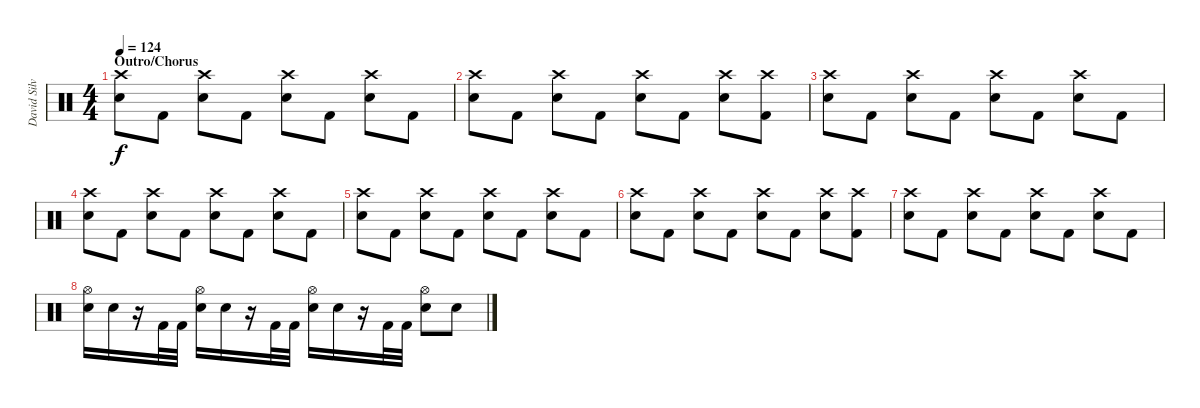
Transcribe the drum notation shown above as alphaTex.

\track ("David Silvera" "David Silv") {instrument percussion}
\staff {score}
\articulation defaults
\ts (4 4)
\section ("" "Outro/Chorus")
\tempo 124
\clef neutral
\ks c
("Crash high (hit)" "Electric Snare (hit)").8{dy f} "Kick (hit) 2".8 ("Crash high (hit)" "Electric Snare (hit)").8 "Kick (hit) 2".8 ("Crash high (hit)" "Electric Snare (hit)").8 "Kick (hit) 2".8 ("Crash high (hit)" "Electric Snare (hit)").8 "Kick (hit) 2".8 |
("Crash high (hit)" "Electric Snare (hit)").8 "Kick (hit) 2".8 ("Crash high (hit)" "Electric Snare (hit)").8 "Kick (hit) 2".8 ("Crash high (hit)" "Electric Snare (hit)").8 "Kick (hit) 2".8 ("Crash high (hit)" "Electric Snare (hit)").8 ("Crash high (hit)" "Kick (hit) 2").8 |
("Crash high (hit)" "Electric Snare (hit)").8 "Kick (hit) 2".8 ("Crash high (hit)" "Electric Snare (hit)").8 "Kick (hit) 2".8 ("Crash high (hit)" "Electric Snare (hit)").8 "Kick (hit) 2".8 ("Crash high (hit)" "Electric Snare (hit)").8 "Kick (hit) 2".8 |
("Crash high (hit)" "Electric Snare (hit)").8 "Kick (hit) 2".8 ("Crash high (hit)" "Electric Snare (hit)").8 "Kick (hit) 2".8 ("Crash high (hit)" "Electric Snare (hit)").8 "Kick (hit) 2".8 ("Crash high (hit)" "Electric Snare (hit)").8 "Kick (hit) 2".8 |
("Crash high (hit)" "Electric Snare (hit)").8 "Kick (hit) 2".8 ("Crash high (hit)" "Electric Snare (hit)").8 "Kick (hit) 2".8 ("Crash high (hit)" "Electric Snare (hit)").8 "Kick (hit) 2".8 ("Crash high (hit)" "Electric Snare (hit)").8 "Kick (hit) 2".8 |
("Crash high (hit)" "Electric Snare (hit)").8 "Kick (hit) 2".8 ("Crash high (hit)" "Electric Snare (hit)").8 "Kick (hit) 2".8 ("Crash high (hit)" "Electric Snare (hit)").8 "Kick (hit) 2".8 ("Crash high (hit)" "Electric Snare (hit)").8 ("Crash high (hit)" "Kick (hit) 2").8 |
("Crash high (hit)" "Electric Snare (hit)").8 "Kick (hit) 2".8 ("Crash high (hit)" "Electric Snare (hit)").8 "Kick (hit) 2".8 ("Crash high (hit)" "Electric Snare (hit)").8 "Kick (hit) 2".8 ("Crash high (hit)" "Electric Snare (hit)").8 "Kick (hit) 2".8 |
("Hi-Hat (open)" "Electric Snare (hit)").16 "Electric Snare (hit)".16 r.16 "Kick (hit) 2".32 "Kick (hit) 2".32 ("Hi-Hat (open)" "Electric Snare (hit)").16 "Electric Snare (hit)".16 r.16 "Kick (hit) 2".32 "Kick (hit) 2".32 ("Hi-Hat (open)" "Electric Snare (hit)").16 "Electric Snare (hit)".16 r.16 "Kick (hit) 2".32 "Kick (hit) 2".32 ("Hi-Hat (open)" "Electric Snare (hit)").8 "Electric Snare (hit)".8
